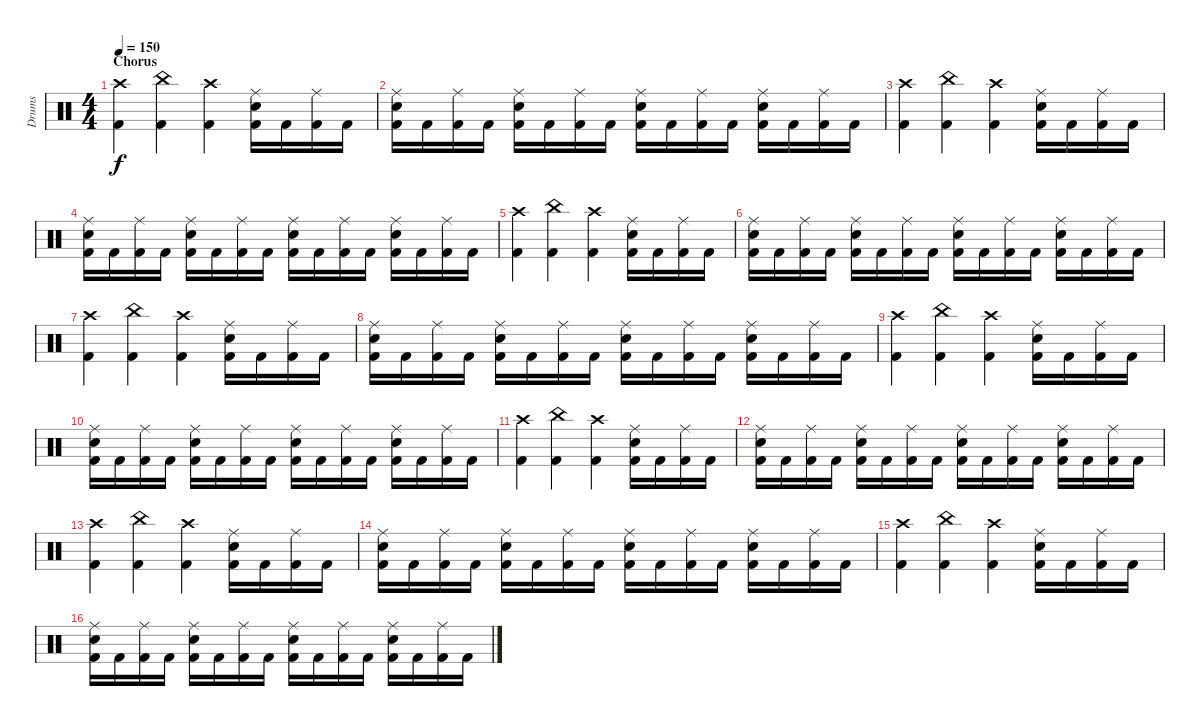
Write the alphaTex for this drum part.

\track ("Drums" "Drums") {instrument percussion}
\staff {score}
\articulation defaults
\ts (4 4)
\section ("" "Chorus")
\tempo 150
\clef neutral
\ks c
("Crash high (hit)" "Kick (hit) 2").4{dy f} ("China (hit)" "Kick (hit) 2").4 ("Crash high (hit)" "Kick (hit) 2").4 ("Ride (middle)" "Snare (hit) 2" "Kick (hit) 2").16 "Kick (hit) 2".16 ("Ride (middle)" "Kick (hit) 2").16 "Kick (hit) 2".16 |
("Ride (middle)" "Snare (hit) 2" "Kick (hit) 2").16 "Kick (hit) 2".16 ("Ride (middle)" "Kick (hit) 2").16 "Kick (hit) 2".16 ("Ride (middle)" "Snare (hit) 2" "Kick (hit) 2").16 "Kick (hit) 2".16 ("Ride (middle)" "Kick (hit) 2").16 "Kick (hit) 2".16 ("Ride (middle)" "Snare (hit) 2" "Kick (hit) 2").16 "Kick (hit) 2".16 ("Ride (middle)" "Kick (hit) 2").16 "Kick (hit) 2".16 ("Ride (middle)" "Snare (hit) 2" "Kick (hit) 2").16 "Kick (hit) 2".16 ("Ride (middle)" "Kick (hit) 2").16 "Kick (hit) 2".16 |
("Crash high (hit)" "Kick (hit) 2").4 ("China (hit)" "Kick (hit) 2").4 ("Crash high (hit)" "Kick (hit) 2").4 ("Ride (middle)" "Snare (hit) 2" "Kick (hit) 2").16 "Kick (hit) 2".16 ("Ride (middle)" "Kick (hit) 2").16 "Kick (hit) 2".16 |
("Ride (middle)" "Snare (hit) 2" "Kick (hit) 2").16 "Kick (hit) 2".16 ("Ride (middle)" "Kick (hit) 2").16 "Kick (hit) 2".16 ("Ride (middle)" "Snare (hit) 2" "Kick (hit) 2").16 "Kick (hit) 2".16 ("Ride (middle)" "Kick (hit) 2").16 "Kick (hit) 2".16 ("Ride (middle)" "Snare (hit) 2" "Kick (hit) 2").16 "Kick (hit) 2".16 ("Ride (middle)" "Kick (hit) 2").16 "Kick (hit) 2".16 ("Ride (middle)" "Snare (hit) 2" "Kick (hit) 2").16 "Kick (hit) 2".16 ("Ride (middle)" "Kick (hit) 2").16 "Kick (hit) 2".16 |
("Crash high (hit)" "Kick (hit) 2").4 ("China (hit)" "Kick (hit) 2").4 ("Crash high (hit)" "Kick (hit) 2").4 ("Ride (middle)" "Snare (hit) 2" "Kick (hit) 2").16 "Kick (hit) 2".16 ("Ride (middle)" "Kick (hit) 2").16 "Kick (hit) 2".16 |
("Ride (middle)" "Snare (hit) 2" "Kick (hit) 2").16 "Kick (hit) 2".16 ("Ride (middle)" "Kick (hit) 2").16 "Kick (hit) 2".16 ("Ride (middle)" "Snare (hit) 2" "Kick (hit) 2").16 "Kick (hit) 2".16 ("Ride (middle)" "Kick (hit) 2").16 "Kick (hit) 2".16 ("Ride (middle)" "Snare (hit) 2" "Kick (hit) 2").16 "Kick (hit) 2".16 ("Ride (middle)" "Kick (hit) 2").16 "Kick (hit) 2".16 ("Ride (middle)" "Snare (hit) 2" "Kick (hit) 2").16 "Kick (hit) 2".16 ("Ride (middle)" "Kick (hit) 2").16 "Kick (hit) 2".16 |
("Crash high (hit)" "Kick (hit) 2").4 ("China (hit)" "Kick (hit) 2").4 ("Crash high (hit)" "Kick (hit) 2").4 ("Ride (middle)" "Snare (hit) 2" "Kick (hit) 2").16 "Kick (hit) 2".16 ("Ride (middle)" "Kick (hit) 2").16 "Kick (hit) 2".16 |
("Ride (middle)" "Snare (hit) 2" "Kick (hit) 2").16 "Kick (hit) 2".16 ("Ride (middle)" "Kick (hit) 2").16 "Kick (hit) 2".16 ("Ride (middle)" "Snare (hit) 2" "Kick (hit) 2").16 "Kick (hit) 2".16 ("Ride (middle)" "Kick (hit) 2").16 "Kick (hit) 2".16 ("Ride (middle)" "Snare (hit) 2" "Kick (hit) 2").16 "Kick (hit) 2".16 ("Ride (middle)" "Kick (hit) 2").16 "Kick (hit) 2".16 ("Ride (middle)" "Snare (hit) 2" "Kick (hit) 2").16 "Kick (hit) 2".16 ("Ride (middle)" "Kick (hit) 2").16 "Kick (hit) 2".16 |
("Crash high (hit)" "Kick (hit) 2").4 ("China (hit)" "Kick (hit) 2").4 ("Crash high (hit)" "Kick (hit) 2").4 ("Ride (middle)" "Snare (hit) 2" "Kick (hit) 2").16 "Kick (hit) 2".16 ("Ride (middle)" "Kick (hit) 2").16 "Kick (hit) 2".16 |
("Ride (middle)" "Snare (hit) 2" "Kick (hit) 2").16 "Kick (hit) 2".16 ("Ride (middle)" "Kick (hit) 2").16 "Kick (hit) 2".16 ("Ride (middle)" "Snare (hit) 2" "Kick (hit) 2").16 "Kick (hit) 2".16 ("Ride (middle)" "Kick (hit) 2").16 "Kick (hit) 2".16 ("Ride (middle)" "Snare (hit) 2" "Kick (hit) 2").16 "Kick (hit) 2".16 ("Ride (middle)" "Kick (hit) 2").16 "Kick (hit) 2".16 ("Ride (middle)" "Snare (hit) 2" "Kick (hit) 2").16 "Kick (hit) 2".16 ("Ride (middle)" "Kick (hit) 2").16 "Kick (hit) 2".16 |
("Crash high (hit)" "Kick (hit) 2").4 ("China (hit)" "Kick (hit) 2").4 ("Crash high (hit)" "Kick (hit) 2").4 ("Ride (middle)" "Snare (hit) 2" "Kick (hit) 2").16 "Kick (hit) 2".16 ("Ride (middle)" "Kick (hit) 2").16 "Kick (hit) 2".16 |
("Ride (middle)" "Snare (hit) 2" "Kick (hit) 2").16 "Kick (hit) 2".16 ("Ride (middle)" "Kick (hit) 2").16 "Kick (hit) 2".16 ("Ride (middle)" "Snare (hit) 2" "Kick (hit) 2").16 "Kick (hit) 2".16 ("Ride (middle)" "Kick (hit) 2").16 "Kick (hit) 2".16 ("Ride (middle)" "Snare (hit) 2" "Kick (hit) 2").16 "Kick (hit) 2".16 ("Ride (middle)" "Kick (hit) 2").16 "Kick (hit) 2".16 ("Ride (middle)" "Snare (hit) 2" "Kick (hit) 2").16 "Kick (hit) 2".16 ("Ride (middle)" "Kick (hit) 2").16 "Kick (hit) 2".16 |
("Crash high (hit)" "Kick (hit) 2").4 ("China (hit)" "Kick (hit) 2").4 ("Crash high (hit)" "Kick (hit) 2").4 ("Ride (middle)" "Snare (hit) 2" "Kick (hit) 2").16 "Kick (hit) 2".16 ("Ride (middle)" "Kick (hit) 2").16 "Kick (hit) 2".16 |
("Ride (middle)" "Snare (hit) 2" "Kick (hit) 2").16 "Kick (hit) 2".16 ("Ride (middle)" "Kick (hit) 2").16 "Kick (hit) 2".16 ("Ride (middle)" "Snare (hit) 2" "Kick (hit) 2").16 "Kick (hit) 2".16 ("Ride (middle)" "Kick (hit) 2").16 "Kick (hit) 2".16 ("Ride (middle)" "Snare (hit) 2" "Kick (hit) 2").16 "Kick (hit) 2".16 ("Ride (middle)" "Kick (hit) 2").16 "Kick (hit) 2".16 ("Ride (middle)" "Snare (hit) 2" "Kick (hit) 2").16 "Kick (hit) 2".16 ("Ride (middle)" "Kick (hit) 2").16 "Kick (hit) 2".16 |
("Crash high (hit)" "Kick (hit) 2").4 ("China (hit)" "Kick (hit) 2").4 ("Crash high (hit)" "Kick (hit) 2").4 ("Ride (middle)" "Snare (hit) 2" "Kick (hit) 2").16 "Kick (hit) 2".16 ("Ride (middle)" "Kick (hit) 2").16 "Kick (hit) 2".16 |
("Ride (middle)" "Snare (hit) 2" "Kick (hit) 2").16 "Kick (hit) 2".16 ("Ride (middle)" "Kick (hit) 2").16 "Kick (hit) 2".16 ("Ride (middle)" "Snare (hit) 2" "Kick (hit) 2").16 "Kick (hit) 2".16 ("Ride (middle)" "Kick (hit) 2").16 "Kick (hit) 2".16 ("Ride (middle)" "Snare (hit) 2" "Kick (hit) 2").16 "Kick (hit) 2".16 ("Ride (middle)" "Kick (hit) 2").16 "Kick (hit) 2".16 ("Ride (middle)" "Snare (hit) 2" "Kick (hit) 2").16 "Kick (hit) 2".16 ("Ride (middle)" "Kick (hit) 2").16 "Kick (hit) 2".16
